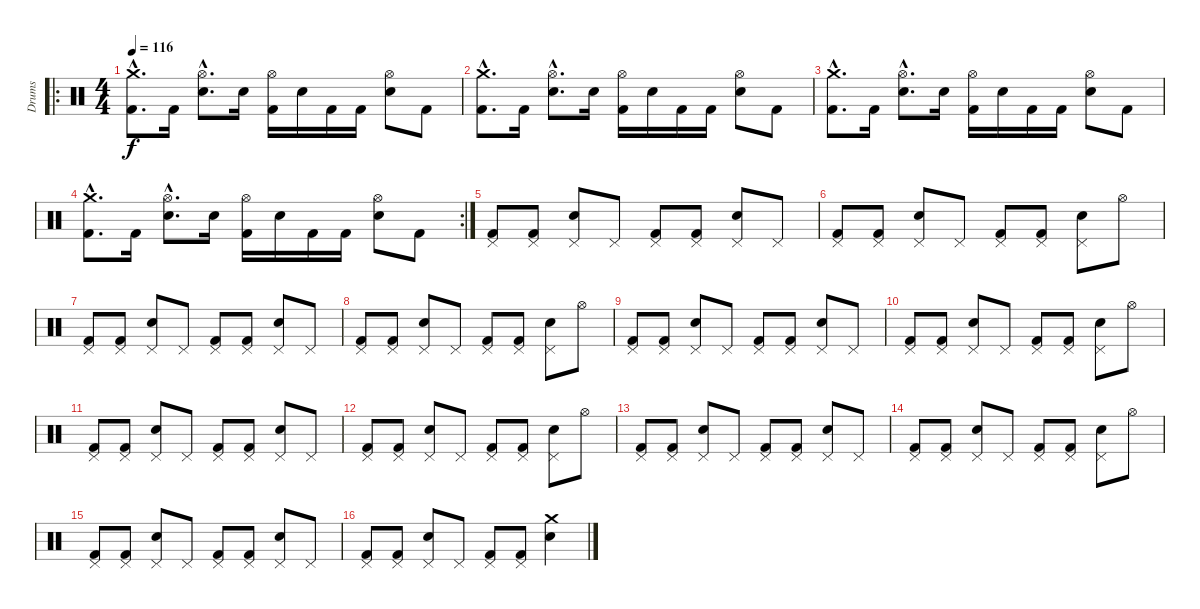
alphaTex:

\track ("Drums" "Drums") {instrument percussion}
\staff {score}
\articulation defaults
\ro
\ts (4 4)
\tempo 116
\clef neutral
\ks c
("Crash medium (hit)"{hac} "Kick (hit) 2"{hac}).8{d dy f} "Kick (hit) 2".16 ("Hi-Hat (open)"{hac} "Electric Snare (hit)"{hac}).8{d} "Electric Snare (hit)".16 ("Hi-Hat (open)" "Kick (hit) 2").16 "Electric Snare (hit)".16 "Kick (hit) 2".16 "Kick (hit) 2".16 ("Hi-Hat (open)" "Electric Snare (hit)").8 "Kick (hit) 2".8 |
("Crash medium (hit)"{hac} "Kick (hit) 2"{hac}).8{d} "Kick (hit) 2".16 ("Hi-Hat (open)"{hac} "Electric Snare (hit)"{hac}).8{d} "Electric Snare (hit)".16 ("Hi-Hat (open)" "Kick (hit) 2").16 "Electric Snare (hit)".16 "Kick (hit) 2".16 "Kick (hit) 2".16 ("Hi-Hat (open)" "Electric Snare (hit)").8 "Kick (hit) 2".8 |
("Crash medium (hit)"{hac} "Kick (hit) 2"{hac}).8{d} "Kick (hit) 2".16 ("Hi-Hat (open)"{hac} "Electric Snare (hit)"{hac}).8{d} "Electric Snare (hit)".16 ("Hi-Hat (open)" "Kick (hit) 2").16 "Electric Snare (hit)".16 "Kick (hit) 2".16 "Kick (hit) 2".16 ("Hi-Hat (open)" "Electric Snare (hit)").8 "Kick (hit) 2".8 |
\rc 2
("Crash medium (hit)"{hac} "Kick (hit) 2"{hac}).8{d} "Kick (hit) 2".16 ("Hi-Hat (open)"{hac} "Electric Snare (hit)"{hac}).8{d} "Electric Snare (hit)".16 ("Hi-Hat (open)" "Kick (hit) 2").16 "Electric Snare (hit)".16 "Kick (hit) 2".16 "Kick (hit) 2".16 ("Hi-Hat (open)" "Electric Snare (hit)").8 "Kick (hit) 2".8 |
("Pedal Hi-Hat (hit)" "Kick (hit) 2").8 ("Pedal Hi-Hat (hit)" "Kick (hit) 2").8 ("Pedal Hi-Hat (hit)" "Electric Snare (hit)").8 "Pedal Hi-Hat (hit)".8 ("Pedal Hi-Hat (hit)" "Kick (hit) 2").8 ("Pedal Hi-Hat (hit)" "Kick (hit) 2").8 ("Pedal Hi-Hat (hit)" "Electric Snare (hit)").8 "Pedal Hi-Hat (hit)".8 |
("Pedal Hi-Hat (hit)" "Kick (hit) 2").8 ("Pedal Hi-Hat (hit)" "Kick (hit) 2").8 ("Pedal Hi-Hat (hit)" "Electric Snare (hit)").8 "Pedal Hi-Hat (hit)".8 ("Pedal Hi-Hat (hit)" "Kick (hit) 2").8 ("Pedal Hi-Hat (hit)" "Kick (hit) 2").8 ("Pedal Hi-Hat (hit)" "Electric Snare (hit)").8 "Hi-Hat (open)".8 |
("Pedal Hi-Hat (hit)" "Kick (hit) 2").8 ("Pedal Hi-Hat (hit)" "Kick (hit) 2").8 ("Pedal Hi-Hat (hit)" "Electric Snare (hit)").8 "Pedal Hi-Hat (hit)".8 ("Pedal Hi-Hat (hit)" "Kick (hit) 2").8 ("Pedal Hi-Hat (hit)" "Kick (hit) 2").8 ("Pedal Hi-Hat (hit)" "Electric Snare (hit)").8 "Pedal Hi-Hat (hit)".8 |
("Pedal Hi-Hat (hit)" "Kick (hit) 2").8 ("Pedal Hi-Hat (hit)" "Kick (hit) 2").8 ("Pedal Hi-Hat (hit)" "Electric Snare (hit)").8 "Pedal Hi-Hat (hit)".8 ("Pedal Hi-Hat (hit)" "Kick (hit) 2").8 ("Pedal Hi-Hat (hit)" "Kick (hit) 2").8 ("Pedal Hi-Hat (hit)" "Electric Snare (hit)").8 "Hi-Hat (open)".8 |
("Pedal Hi-Hat (hit)" "Kick (hit) 2").8 ("Pedal Hi-Hat (hit)" "Kick (hit) 2").8 ("Pedal Hi-Hat (hit)" "Electric Snare (hit)").8 "Pedal Hi-Hat (hit)".8 ("Pedal Hi-Hat (hit)" "Kick (hit) 2").8 ("Pedal Hi-Hat (hit)" "Kick (hit) 2").8 ("Pedal Hi-Hat (hit)" "Electric Snare (hit)").8 "Pedal Hi-Hat (hit)".8 |
("Pedal Hi-Hat (hit)" "Kick (hit) 2").8 ("Pedal Hi-Hat (hit)" "Kick (hit) 2").8 ("Pedal Hi-Hat (hit)" "Electric Snare (hit)").8 "Pedal Hi-Hat (hit)".8 ("Pedal Hi-Hat (hit)" "Kick (hit) 2").8 ("Pedal Hi-Hat (hit)" "Kick (hit) 2").8 ("Pedal Hi-Hat (hit)" "Electric Snare (hit)").8 "Hi-Hat (open)".8 |
("Pedal Hi-Hat (hit)" "Kick (hit) 2").8 ("Pedal Hi-Hat (hit)" "Kick (hit) 2").8 ("Pedal Hi-Hat (hit)" "Electric Snare (hit)").8 "Pedal Hi-Hat (hit)".8 ("Pedal Hi-Hat (hit)" "Kick (hit) 2").8 ("Pedal Hi-Hat (hit)" "Kick (hit) 2").8 ("Pedal Hi-Hat (hit)" "Electric Snare (hit)").8 "Pedal Hi-Hat (hit)".8 |
("Pedal Hi-Hat (hit)" "Kick (hit) 2").8 ("Pedal Hi-Hat (hit)" "Kick (hit) 2").8 ("Pedal Hi-Hat (hit)" "Electric Snare (hit)").8 "Pedal Hi-Hat (hit)".8 ("Pedal Hi-Hat (hit)" "Kick (hit) 2").8 ("Pedal Hi-Hat (hit)" "Kick (hit) 2").8 ("Pedal Hi-Hat (hit)" "Electric Snare (hit)").8 "Hi-Hat (open)".8 |
("Pedal Hi-Hat (hit)" "Kick (hit) 2").8 ("Pedal Hi-Hat (hit)" "Kick (hit) 2").8 ("Pedal Hi-Hat (hit)" "Electric Snare (hit)").8 "Pedal Hi-Hat (hit)".8 ("Pedal Hi-Hat (hit)" "Kick (hit) 2").8 ("Pedal Hi-Hat (hit)" "Kick (hit) 2").8 ("Pedal Hi-Hat (hit)" "Electric Snare (hit)").8 "Pedal Hi-Hat (hit)".8 |
("Pedal Hi-Hat (hit)" "Kick (hit) 2").8 ("Pedal Hi-Hat (hit)" "Kick (hit) 2").8 ("Pedal Hi-Hat (hit)" "Electric Snare (hit)").8 "Pedal Hi-Hat (hit)".8 ("Pedal Hi-Hat (hit)" "Kick (hit) 2").8 ("Pedal Hi-Hat (hit)" "Kick (hit) 2").8 ("Pedal Hi-Hat (hit)" "Electric Snare (hit)").8 "Hi-Hat (open)".8 |
("Pedal Hi-Hat (hit)" "Kick (hit) 2").8 ("Pedal Hi-Hat (hit)" "Kick (hit) 2").8 ("Pedal Hi-Hat (hit)" "Electric Snare (hit)").8 "Pedal Hi-Hat (hit)".8 ("Pedal Hi-Hat (hit)" "Kick (hit) 2").8 ("Pedal Hi-Hat (hit)" "Kick (hit) 2").8 ("Pedal Hi-Hat (hit)" "Electric Snare (hit)").8 "Pedal Hi-Hat (hit)".8 |
("Pedal Hi-Hat (hit)" "Kick (hit) 2").8 ("Pedal Hi-Hat (hit)" "Kick (hit) 2").8 ("Pedal Hi-Hat (hit)" "Electric Snare (hit)").8 "Pedal Hi-Hat (hit)".8 ("Pedal Hi-Hat (hit)" "Kick (hit) 2").8 ("Pedal Hi-Hat (hit)" "Kick (hit) 2").8 ("Crash medium (hit)" "Electric Snare (hit)").4
